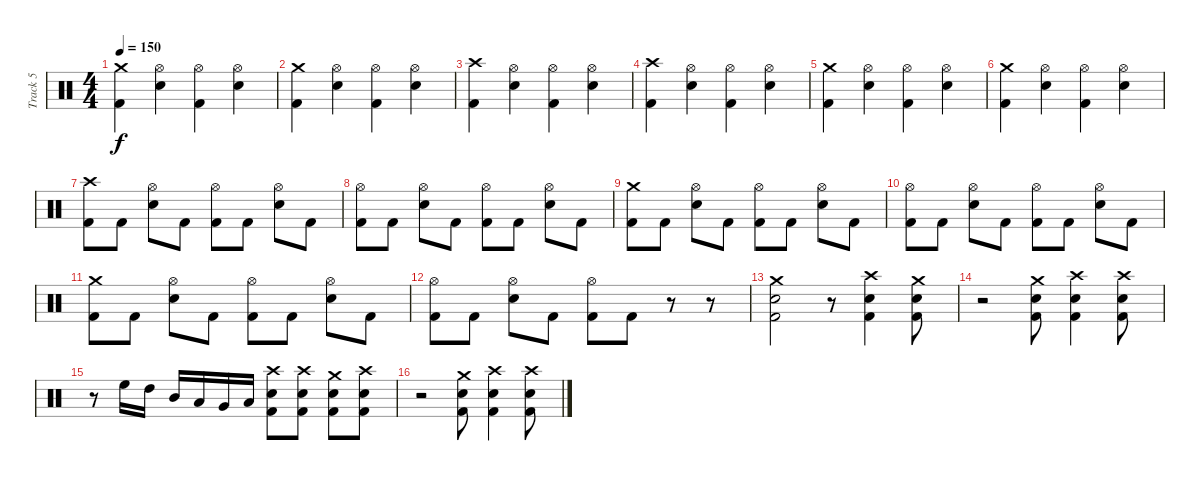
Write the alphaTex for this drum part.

\track ("Track 5" "Track 5") {instrument percussion}
\staff {score}
\articulation defaults
\ts (4 4)
\tempo 150
\clef neutral
\ks c
("Crash medium (hit)" "Kick (hit) 2").4{dy f} ("Hi-Hat (open)" "Electric Snare (hit)").4 ("Hi-Hat (open)" "Kick (hit) 2").4 ("Hi-Hat (open)" "Electric Snare (hit)").4 |
("Crash medium (hit)" "Kick (hit) 2").4 ("Hi-Hat (open)" "Electric Snare (hit)").4 ("Hi-Hat (open)" "Kick (hit) 2").4 ("Hi-Hat (open)" "Electric Snare (hit)").4 |
("Crash high (hit)" "Kick (hit) 2").4 ("Hi-Hat (open)" "Electric Snare (hit)").4 ("Hi-Hat (open)" "Kick (hit) 2").4 ("Hi-Hat (open)" "Electric Snare (hit)").4 |
("Crash high (hit)" "Kick (hit) 2").4 ("Hi-Hat (open)" "Electric Snare (hit)").4 ("Hi-Hat (open)" "Kick (hit) 2").4 ("Hi-Hat (open)" "Electric Snare (hit)").4 |
("Crash medium (hit)" "Kick (hit) 2").4 ("Hi-Hat (open)" "Electric Snare (hit)").4 ("Hi-Hat (open)" "Kick (hit) 2").4 ("Hi-Hat (open)" "Electric Snare (hit)").4 |
("Crash medium (hit)" "Kick (hit) 2").4 ("Hi-Hat (open)" "Electric Snare (hit)").4 ("Hi-Hat (open)" "Kick (hit) 2").4 ("Hi-Hat (open)" "Electric Snare (hit)").4 |
("Crash high (hit)" "Kick (hit) 2").8 "Kick (hit) 2".8 ("Hi-Hat (open)" "Electric Snare (hit)").8 "Kick (hit) 2".8 ("Hi-Hat (open)" "Kick (hit) 2").8 "Kick (hit) 2".8 ("Hi-Hat (open)" "Electric Snare (hit)").8 "Kick (hit) 2".8 |
("Hi-Hat (open)" "Kick (hit) 2").8 "Kick (hit) 2".8 ("Hi-Hat (open)" "Electric Snare (hit)").8 "Kick (hit) 2".8 ("Hi-Hat (open)" "Kick (hit) 2").8 "Kick (hit) 2".8 ("Hi-Hat (open)" "Electric Snare (hit)").8 "Kick (hit) 2".8 |
("Crash medium (hit)" "Kick (hit) 2").8 "Kick (hit) 2".8 ("Hi-Hat (open)" "Electric Snare (hit)").8 "Kick (hit) 2".8 ("Hi-Hat (open)" "Kick (hit) 2").8 "Kick (hit) 2".8 ("Hi-Hat (open)" "Electric Snare (hit)").8 "Kick (hit) 2".8 |
("Hi-Hat (open)" "Kick (hit) 2").8 "Kick (hit) 2".8 ("Hi-Hat (open)" "Electric Snare (hit)").8 "Kick (hit) 2".8 ("Hi-Hat (open)" "Kick (hit) 2").8 "Kick (hit) 2".8 ("Hi-Hat (open)" "Electric Snare (hit)").8 "Kick (hit) 2".8 |
("Crash medium (hit)" "Kick (hit) 2").8 "Kick (hit) 2".8 ("Hi-Hat (open)" "Electric Snare (hit)").8 "Kick (hit) 2".8 ("Hi-Hat (open)" "Kick (hit) 2").8 "Kick (hit) 2".8 ("Hi-Hat (open)" "Electric Snare (hit)").8 "Kick (hit) 2".8 |
("Hi-Hat (open)" "Kick (hit) 2").8 "Kick (hit) 2".8 ("Hi-Hat (open)" "Electric Snare (hit)").8 "Kick (hit) 2".8 ("Hi-Hat (open)" "Kick (hit) 2").8 "Kick (hit) 2".8 r.8 r.8 |
("Crash medium (hit)" "Electric Snare (hit)" "Kick (hit) 2").2 r.8 ("Crash high (hit)" "Electric Snare (hit)" "Kick (hit) 2").4 ("Crash medium (hit)" "Electric Snare (hit)" "Kick (hit) 2").8 |
r.2 ("Crash medium (hit)" "Electric Snare (hit)" "Kick (hit) 2").8 ("Crash high (hit)" "Electric Snare (hit)" "Kick (hit) 2").4 ("Crash high (hit)" "Electric Snare (hit)" "Kick (hit) 2").8 |
r.8 "High Floor Tom (hit)".16 "High Tom (hit)".16 "Mid Tom (hit)".16 "Low Tom (hit)".16 "Very Low Tom (hit)".16 "Low Floor Tom (hit)".16 ("Crash high (hit)" "Electric Snare (hit)" "Kick (hit) 2").8 ("Crash high (hit)" "Electric Snare (hit)" "Kick (hit) 2").8 ("Crash medium (hit)" "Electric Snare (hit)" "Kick (hit) 2").8 ("Crash high (hit)" "Electric Snare (hit)" "Kick (hit) 2").8 |
r.2 ("Crash medium (hit)" "Electric Snare (hit)" "Kick (hit) 2").8 ("Crash high (hit)" "Electric Snare (hit)" "Kick (hit) 2").4 ("Crash high (hit)" "Electric Snare (hit)" "Kick (hit) 2").8
